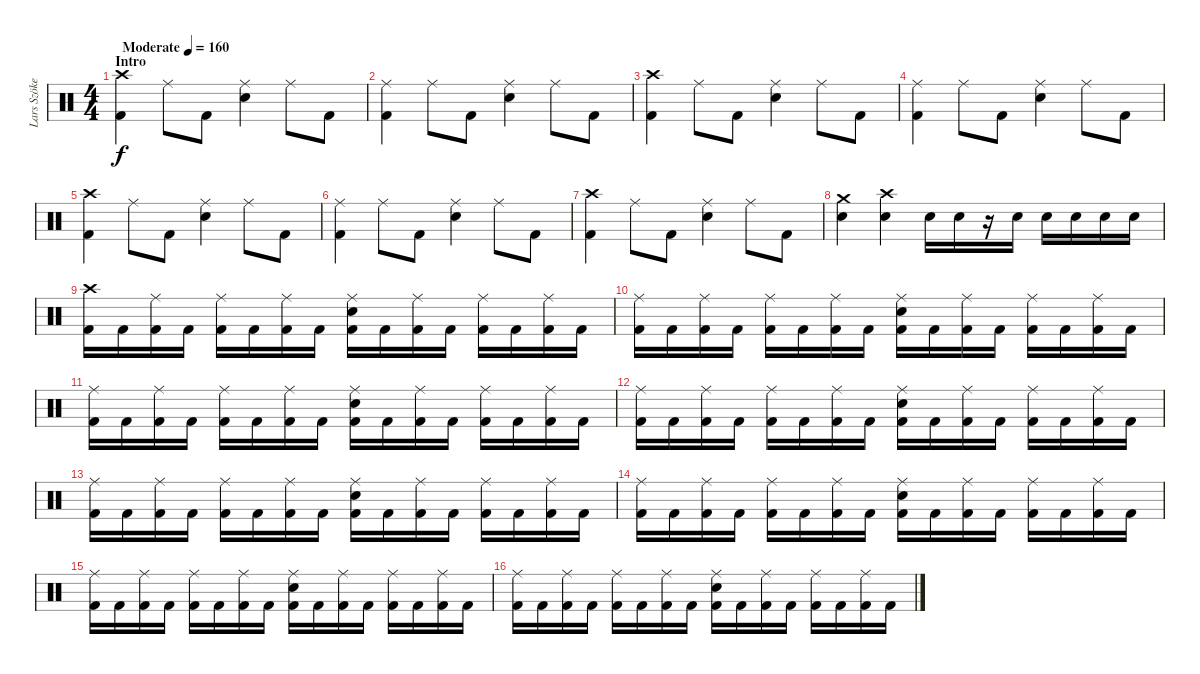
\track ("Lars Szöke" "Lars Szöke") {instrument percussion}
\staff {score}
\articulation defaults
\ts (4 4)
\section ("" "Intro")
\tempo (160 "Moderate")
\clef neutral
\ks c
("Crash high (hit)" "Kick (hit) 2").4{dy f} "Ride (middle)".8 "Kick (hit) 2".8 ("Ride (middle)" "Snare (hit) 2").4 "Ride (middle)".8 "Kick (hit) 2".8 |
("Ride (middle)" "Kick (hit) 2").4 "Ride (middle)".8 "Kick (hit) 2".8 ("Ride (middle)" "Snare (hit) 2").4 "Ride (middle)".8 "Kick (hit) 2".8 |
("Crash high (hit)" "Kick (hit) 2").4 "Ride (middle)".8 "Kick (hit) 2".8 ("Ride (middle)" "Snare (hit) 2").4 "Ride (middle)".8 "Kick (hit) 2".8 |
("Ride (middle)" "Kick (hit) 2").4 "Ride (middle)".8 "Kick (hit) 2".8 ("Ride (middle)" "Snare (hit) 2").4 "Ride (middle)".8 "Kick (hit) 2".8 |
("Crash high (hit)" "Kick (hit) 2").4 "Ride (middle)".8 "Kick (hit) 2".8 ("Ride (middle)" "Snare (hit) 2").4 "Ride (middle)".8 "Kick (hit) 2".8 |
("Ride (middle)" "Kick (hit) 2").4 "Ride (middle)".8 "Kick (hit) 2".8 ("Ride (middle)" "Snare (hit) 2").4 "Ride (middle)".8 "Kick (hit) 2".8 |
("Crash high (hit)" "Kick (hit) 2").4 "Ride (middle)".8 "Kick (hit) 2".8 ("Ride (middle)" "Snare (hit) 2").4 "Ride (middle)".8 "Kick (hit) 2".8 |
("Crash medium (hit)" "Snare (hit) 2").4 ("Crash high (hit)" "Snare (hit) 2").4 "Snare (hit) 2".16 "Snare (hit) 2".16 r.16 "Snare (hit) 2".16 "Snare (hit) 2".16 "Snare (hit) 2".16 "Snare (hit) 2".16 "Snare (hit) 2".16 |
("Crash high (hit)" "Kick (hit) 2").16 "Kick (hit) 2".16 ("Ride (middle)" "Kick (hit) 2").16 "Kick (hit) 2".16 ("Ride (middle)" "Kick (hit) 2").16 "Kick (hit) 2".16 ("Ride (middle)" "Kick (hit) 2").16 "Kick (hit) 2".16 ("Ride (middle)" "Snare (hit) 2" "Kick (hit) 2").16 "Kick (hit) 2".16 ("Ride (middle)" "Kick (hit) 2").16 "Kick (hit) 2".16 ("Ride (middle)" "Kick (hit) 2").16 "Kick (hit) 2".16 ("Ride (middle)" "Kick (hit) 2").16 "Kick (hit) 2".16 |
("Ride (middle)" "Kick (hit) 2").16 "Kick (hit) 2".16 ("Ride (middle)" "Kick (hit) 2").16 "Kick (hit) 2".16 ("Ride (middle)" "Kick (hit) 2").16 "Kick (hit) 2".16 ("Ride (middle)" "Kick (hit) 2").16 "Kick (hit) 2".16 ("Ride (middle)" "Snare (hit) 2" "Kick (hit) 2").16 "Kick (hit) 2".16 ("Ride (middle)" "Kick (hit) 2").16 "Kick (hit) 2".16 ("Ride (middle)" "Kick (hit) 2").16 "Kick (hit) 2".16 ("Ride (middle)" "Kick (hit) 2").16 "Kick (hit) 2".16 |
("Ride (middle)" "Kick (hit) 2").16 "Kick (hit) 2".16 ("Ride (middle)" "Kick (hit) 2").16 "Kick (hit) 2".16 ("Ride (middle)" "Kick (hit) 2").16 "Kick (hit) 2".16 ("Ride (middle)" "Kick (hit) 2").16 "Kick (hit) 2".16 ("Ride (middle)" "Snare (hit) 2" "Kick (hit) 2").16 "Kick (hit) 2".16 ("Ride (middle)" "Kick (hit) 2").16 "Kick (hit) 2".16 ("Ride (middle)" "Kick (hit) 2").16 "Kick (hit) 2".16 ("Ride (middle)" "Kick (hit) 2").16 "Kick (hit) 2".16 |
("Ride (middle)" "Kick (hit) 2").16 "Kick (hit) 2".16 ("Ride (middle)" "Kick (hit) 2").16 "Kick (hit) 2".16 ("Ride (middle)" "Kick (hit) 2").16 "Kick (hit) 2".16 ("Ride (middle)" "Kick (hit) 2").16 "Kick (hit) 2".16 ("Ride (middle)" "Snare (hit) 2" "Kick (hit) 2").16 "Kick (hit) 2".16 ("Ride (middle)" "Kick (hit) 2").16 "Kick (hit) 2".16 ("Ride (middle)" "Kick (hit) 2").16 "Kick (hit) 2".16 ("Ride (middle)" "Kick (hit) 2").16 "Kick (hit) 2".16 |
("Ride (middle)" "Kick (hit) 2").16 "Kick (hit) 2".16 ("Ride (middle)" "Kick (hit) 2").16 "Kick (hit) 2".16 ("Ride (middle)" "Kick (hit) 2").16 "Kick (hit) 2".16 ("Ride (middle)" "Kick (hit) 2").16 "Kick (hit) 2".16 ("Ride (middle)" "Snare (hit) 2" "Kick (hit) 2").16 "Kick (hit) 2".16 ("Ride (middle)" "Kick (hit) 2").16 "Kick (hit) 2".16 ("Ride (middle)" "Kick (hit) 2").16 "Kick (hit) 2".16 ("Ride (middle)" "Kick (hit) 2").16 "Kick (hit) 2".16 |
("Ride (middle)" "Kick (hit) 2").16 "Kick (hit) 2".16 ("Ride (middle)" "Kick (hit) 2").16 "Kick (hit) 2".16 ("Ride (middle)" "Kick (hit) 2").16 "Kick (hit) 2".16 ("Ride (middle)" "Kick (hit) 2").16 "Kick (hit) 2".16 ("Ride (middle)" "Snare (hit) 2" "Kick (hit) 2").16 "Kick (hit) 2".16 ("Ride (middle)" "Kick (hit) 2").16 "Kick (hit) 2".16 ("Ride (middle)" "Kick (hit) 2").16 "Kick (hit) 2".16 ("Ride (middle)" "Kick (hit) 2").16 "Kick (hit) 2".16 |
("Ride (middle)" "Kick (hit) 2").16 "Kick (hit) 2".16 ("Ride (middle)" "Kick (hit) 2").16 "Kick (hit) 2".16 ("Ride (middle)" "Kick (hit) 2").16 "Kick (hit) 2".16 ("Ride (middle)" "Kick (hit) 2").16 "Kick (hit) 2".16 ("Ride (middle)" "Snare (hit) 2" "Kick (hit) 2").16 "Kick (hit) 2".16 ("Ride (middle)" "Kick (hit) 2").16 "Kick (hit) 2".16 ("Ride (middle)" "Kick (hit) 2").16 "Kick (hit) 2".16 ("Ride (middle)" "Kick (hit) 2").16 "Kick (hit) 2".16 |
("Ride (middle)" "Kick (hit) 2").16 "Kick (hit) 2".16 ("Ride (middle)" "Kick (hit) 2").16 "Kick (hit) 2".16 ("Ride (middle)" "Kick (hit) 2").16 "Kick (hit) 2".16 ("Ride (middle)" "Kick (hit) 2").16 "Kick (hit) 2".16 ("Ride (middle)" "Snare (hit) 2" "Kick (hit) 2").16 "Kick (hit) 2".16 ("Ride (middle)" "Kick (hit) 2").16 "Kick (hit) 2".16 ("Ride (middle)" "Kick (hit) 2").16 "Kick (hit) 2".16 ("Ride (middle)" "Kick (hit) 2").16 "Kick (hit) 2".16
